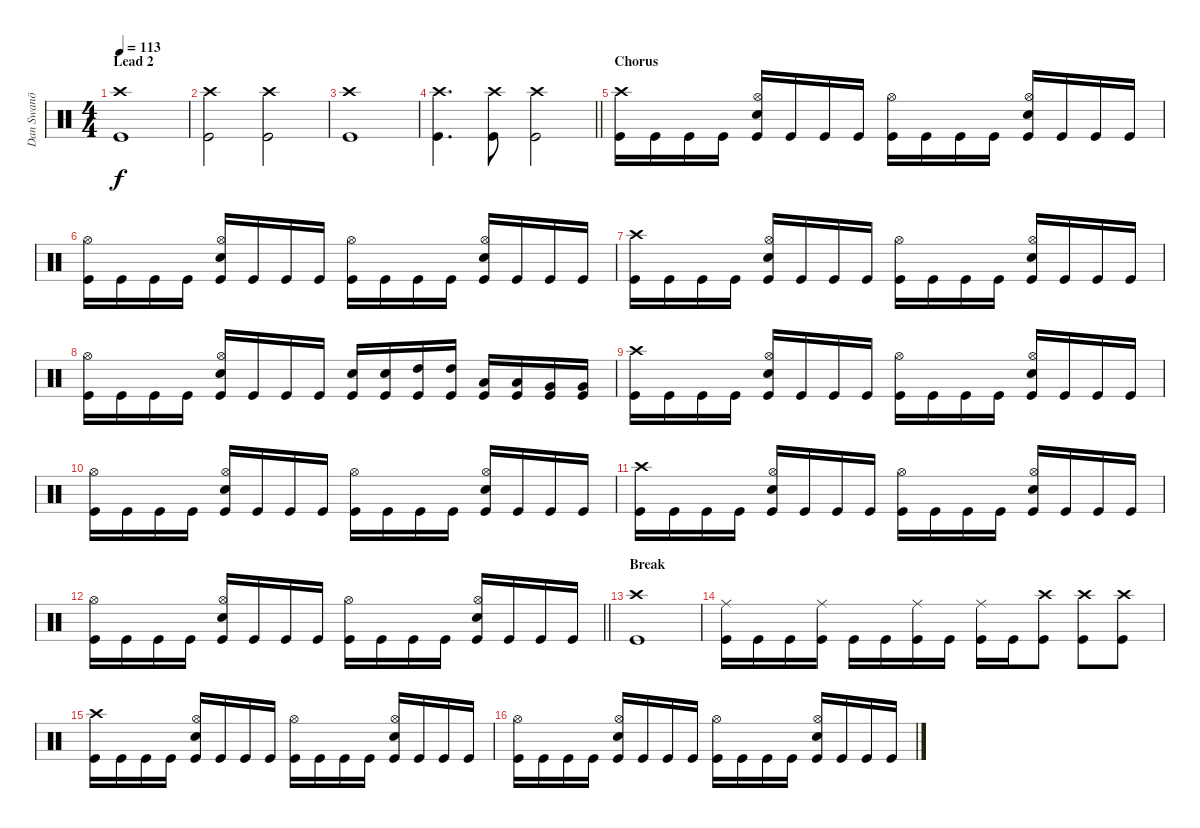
\track ("Dan Swanö" "Dan Swanö") {instrument percussion}
\staff {score}
\articulation defaults
\ts (4 4)
\section ("" "Lead 2")
\tempo 113
\clef neutral
\ks c
("Crash high (hit)" "Kick (hit)").1{dy f} |
("Crash high (hit)" "Kick (hit)").2 ("Crash high (hit)" "Kick (hit)").2 |
("Crash high (hit)" "Kick (hit)").1 |
\barLineRight lightlight
("Crash high (hit)" "Kick (hit)").4{d} ("Crash high (hit)" "Kick (hit)").8 ("Crash high (hit)" "Kick (hit)").2 |
\section ("" "Chorus")
("Crash high (hit)" "Kick (hit)").16 "Kick (hit)".16 "Kick (hit)".16 "Kick (hit)".16 ("Hi-Hat (open)" "Snare (hit) 2" "Kick (hit)").16 "Kick (hit)".16 "Kick (hit)".16 "Kick (hit)".16 ("Hi-Hat (open)" "Kick (hit)").16 "Kick (hit)".16 "Kick (hit)".16 "Kick (hit)".16 ("Hi-Hat (open)" "Snare (hit) 2" "Kick (hit)").16 "Kick (hit)".16 "Kick (hit)".16 "Kick (hit)".16 |
("Hi-Hat (open)" "Kick (hit)").16 "Kick (hit)".16 "Kick (hit)".16 "Kick (hit)".16 ("Hi-Hat (open)" "Snare (hit) 2" "Kick (hit)").16 "Kick (hit)".16 "Kick (hit)".16 "Kick (hit)".16 ("Hi-Hat (open)" "Kick (hit)").16 "Kick (hit)".16 "Kick (hit)".16 "Kick (hit)".16 ("Hi-Hat (open)" "Snare (hit) 2" "Kick (hit)").16 "Kick (hit)".16 "Kick (hit)".16 "Kick (hit)".16 |
("Crash high (hit)" "Kick (hit)").16 "Kick (hit)".16 "Kick (hit)".16 "Kick (hit)".16 ("Hi-Hat (open)" "Snare (hit) 2" "Kick (hit)").16 "Kick (hit)".16 "Kick (hit)".16 "Kick (hit)".16 ("Hi-Hat (open)" "Kick (hit)").16 "Kick (hit)".16 "Kick (hit)".16 "Kick (hit)".16 ("Hi-Hat (open)" "Snare (hit) 2" "Kick (hit)").16 "Kick (hit)".16 "Kick (hit)".16 "Kick (hit)".16 |
("Hi-Hat (open)" "Kick (hit)").16 "Kick (hit)".16 "Kick (hit)".16 "Kick (hit)".16 ("Hi-Hat (open)" "Snare (hit) 2" "Kick (hit)").16 "Kick (hit)".16 "Kick (hit)".16 "Kick (hit)".16 ("Snare (hit) 2" "Kick (hit)").16 ("Snare (hit) 2" "Kick (hit)").16 ("High Tom (hit)" "Kick (hit)").16 ("High Tom (hit)" "Kick (hit)").16 ("Low Tom (hit)" "Kick (hit)").16 ("Low Tom (hit)" "Kick (hit)").16 ("Very Low Tom (hit)" "Kick (hit)").16 ("Very Low Tom (hit)" "Kick (hit)").16 |
("Crash high (hit)" "Kick (hit)").16 "Kick (hit)".16 "Kick (hit)".16 "Kick (hit)".16 ("Hi-Hat (open)" "Snare (hit) 2" "Kick (hit)").16 "Kick (hit)".16 "Kick (hit)".16 "Kick (hit)".16 ("Hi-Hat (open)" "Kick (hit)").16 "Kick (hit)".16 "Kick (hit)".16 "Kick (hit)".16 ("Hi-Hat (open)" "Snare (hit) 2" "Kick (hit)").16 "Kick (hit)".16 "Kick (hit)".16 "Kick (hit)".16 |
("Hi-Hat (open)" "Kick (hit)").16 "Kick (hit)".16 "Kick (hit)".16 "Kick (hit)".16 ("Hi-Hat (open)" "Snare (hit) 2" "Kick (hit)").16 "Kick (hit)".16 "Kick (hit)".16 "Kick (hit)".16 ("Hi-Hat (open)" "Kick (hit)").16 "Kick (hit)".16 "Kick (hit)".16 "Kick (hit)".16 ("Hi-Hat (open)" "Snare (hit) 2" "Kick (hit)").16 "Kick (hit)".16 "Kick (hit)".16 "Kick (hit)".16 |
("Crash high (hit)" "Kick (hit)").16 "Kick (hit)".16 "Kick (hit)".16 "Kick (hit)".16 ("Hi-Hat (open)" "Snare (hit) 2" "Kick (hit)").16 "Kick (hit)".16 "Kick (hit)".16 "Kick (hit)".16 ("Hi-Hat (open)" "Kick (hit)").16 "Kick (hit)".16 "Kick (hit)".16 "Kick (hit)".16 ("Hi-Hat (open)" "Snare (hit) 2" "Kick (hit)").16 "Kick (hit)".16 "Kick (hit)".16 "Kick (hit)".16 |
\barLineRight lightlight
("Hi-Hat (open)" "Kick (hit)").16 "Kick (hit)".16 "Kick (hit)".16 "Kick (hit)".16 ("Hi-Hat (open)" "Snare (hit) 2" "Kick (hit)").16 "Kick (hit)".16 "Kick (hit)".16 "Kick (hit)".16 ("Hi-Hat (open)" "Kick (hit)").16 "Kick (hit)".16 "Kick (hit)".16 "Kick (hit)".16 ("Hi-Hat (open)" "Snare (hit) 2" "Kick (hit)").16 "Kick (hit)".16 "Kick (hit)".16 "Kick (hit)".16 |
\section ("" "Break")
("Crash high (hit)" "Kick (hit)").1 |
("Ride (middle)" "Kick (hit)").16 "Kick (hit)".16 "Kick (hit)".16 ("Ride (middle)" "Kick (hit)").16 "Kick (hit)".16 "Kick (hit)".16 ("Ride (middle)" "Kick (hit)").16 "Kick (hit)".16 ("Ride (middle)" "Kick (hit)").16 "Kick (hit)".16 ("Crash high (hit)" "Kick (hit)").8 ("Crash high (hit)" "Kick (hit)").8 ("Crash high (hit)" "Kick (hit)").8 |
("Crash high (hit)" "Kick (hit)").16 "Kick (hit)".16 "Kick (hit)".16 "Kick (hit)".16 ("Hi-Hat (open)" "Snare (hit) 2" "Kick (hit)").16 "Kick (hit)".16 "Kick (hit)".16 "Kick (hit)".16 ("Hi-Hat (open)" "Kick (hit)").16 "Kick (hit)".16 "Kick (hit)".16 "Kick (hit)".16 ("Hi-Hat (open)" "Snare (hit) 2" "Kick (hit)").16 "Kick (hit)".16 "Kick (hit)".16 "Kick (hit)".16 |
("Hi-Hat (open)" "Kick (hit)").16 "Kick (hit)".16 "Kick (hit)".16 "Kick (hit)".16 ("Hi-Hat (open)" "Snare (hit) 2" "Kick (hit)").16 "Kick (hit)".16 "Kick (hit)".16 "Kick (hit)".16 ("Hi-Hat (open)" "Kick (hit)").16 "Kick (hit)".16 "Kick (hit)".16 "Kick (hit)".16 ("Hi-Hat (open)" "Snare (hit) 2" "Kick (hit)").16 "Kick (hit)".16 "Kick (hit)".16 "Kick (hit)".16
